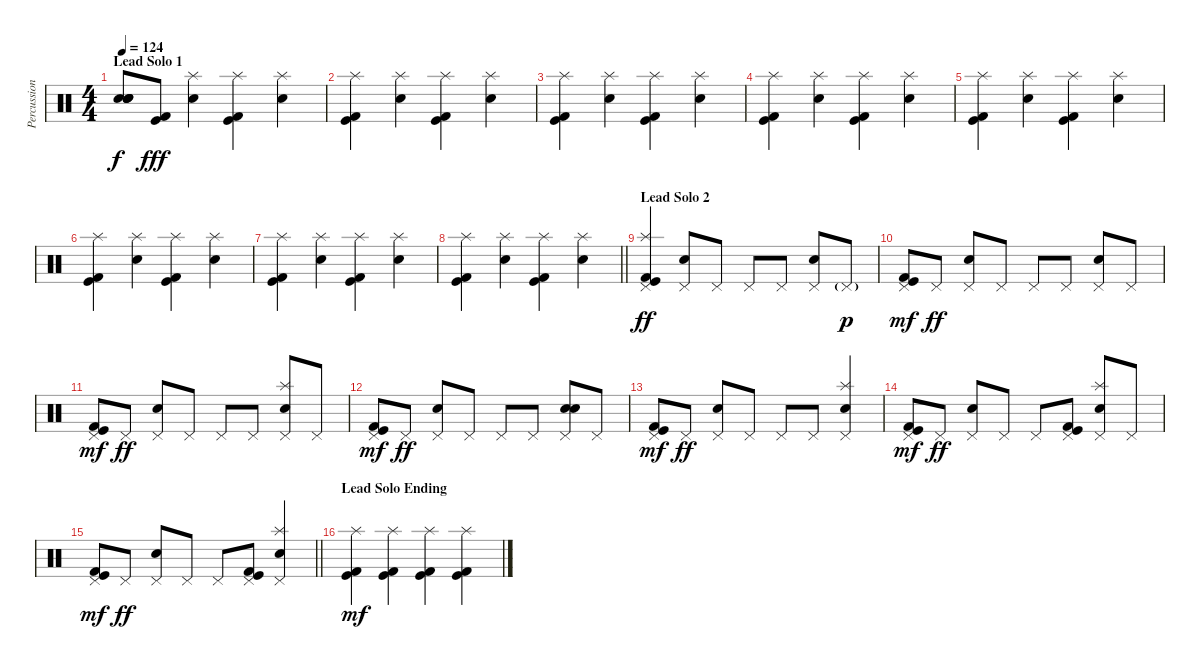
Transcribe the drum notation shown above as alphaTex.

\track ("Percussion" "Percussion") {instrument percussion}
\staff {score}
\articulation defaults
\ts (4 4)
\section ("" "Lead Solo 1")
\tempo 124
\clef neutral
\ks c
("Snare (hit)"{t} "Snare (hit)"{t} "Snare (hit)"{t} "Snare (hit)"{t}).8{dy f} ("Kick (hit)" "Kick (hit) 2").8{dy fff} ("Splash (hit)" "Snare (hit) 2").4 ("Splash (hit)" "Kick (hit)" "Kick (hit) 2").4 ("Splash (hit)" "Snare (hit) 2").4 |
("Splash (hit)" "Kick (hit)" "Kick (hit) 2").4 ("Splash (hit)" "Snare (hit) 2").4 ("Splash (hit)" "Kick (hit)" "Kick (hit) 2").4 ("Splash (hit)" "Snare (hit) 2").4 |
("Splash (hit)" "Kick (hit)" "Kick (hit) 2").4 ("Splash (hit)" "Snare (hit) 2").4 ("Splash (hit)" "Kick (hit)" "Kick (hit) 2").4 ("Splash (hit)" "Snare (hit) 2").4 |
("Splash (hit)" "Kick (hit)" "Kick (hit) 2").4 ("Splash (hit)" "Snare (hit) 2").4 ("Splash (hit)" "Kick (hit)" "Kick (hit) 2").4 ("Splash (hit)" "Snare (hit) 2").4 |
("Splash (hit)" "Kick (hit)" "Kick (hit) 2").4 ("Splash (hit)" "Snare (hit) 2").4 ("Splash (hit)" "Kick (hit)" "Kick (hit) 2").4 ("Splash (hit)" "Snare (hit) 2").4 |
("Splash (hit)" "Kick (hit)" "Kick (hit) 2").4 ("Splash (hit)" "Snare (hit) 2").4 ("Splash (hit)" "Kick (hit)" "Kick (hit) 2").4 ("Splash (hit)" "Snare (hit) 2").4 |
("Splash (hit)" "Kick (hit)" "Kick (hit) 2").4 ("Splash (hit)" "Snare (hit) 2").4 ("Splash (hit)" "Kick (hit)" "Kick (hit) 2").4 ("Splash (hit)" "Snare (hit) 2").4 |
\barLineRight lightlight
("Splash (hit)" "Kick (hit)" "Kick (hit) 2").4 ("Splash (hit)" "Snare (hit) 2").4 ("Splash (hit)" "Kick (hit)" "Kick (hit) 2").4 ("Splash (hit)" "Snare (hit) 2").4 |
\section ("" "Lead Solo 2")
("Splash (hit)" "Pedal Hi-Hat (hit)" "Kick (hit)" "Kick (hit) 2").4{dy ff} ("Pedal Hi-Hat (hit)" "Snare (hit) 2").8 "Pedal Hi-Hat (hit)".8 "Pedal Hi-Hat (hit)".8 "Pedal Hi-Hat (hit)".8 ("Pedal Hi-Hat (hit)" "Snare (hit) 2").8 "Pedal Hi-Hat (hit)"{g}.8{dy p} |
("Pedal Hi-Hat (hit)" "Kick (hit)" "Kick (hit) 2").8{dy mf} "Pedal Hi-Hat (hit)".8{dy ff} ("Pedal Hi-Hat (hit)" "Snare (hit) 2").8 "Pedal Hi-Hat (hit)".8 "Pedal Hi-Hat (hit)".8 "Pedal Hi-Hat (hit)".8 ("Pedal Hi-Hat (hit)" "Snare (hit) 2").8 "Pedal Hi-Hat (hit)".8 |
("Pedal Hi-Hat (hit)" "Kick (hit)" "Kick (hit) 2").8{dy mf} "Pedal Hi-Hat (hit)".8{dy ff} ("Pedal Hi-Hat (hit)" "Snare (hit) 2").8 "Pedal Hi-Hat (hit)".8 "Pedal Hi-Hat (hit)".8 "Pedal Hi-Hat (hit)".8 ("Pedal Hi-Hat (hit)" "Splash (hit)" "Snare (hit) 2").8 "Pedal Hi-Hat (hit)".8 |
("Pedal Hi-Hat (hit)" "Kick (hit)" "Kick (hit) 2").8{dy mf} "Pedal Hi-Hat (hit)".8{dy ff} ("Pedal Hi-Hat (hit)" "Snare (hit) 2").8 "Pedal Hi-Hat (hit)".8 "Pedal Hi-Hat (hit)".8 "Pedal Hi-Hat (hit)".8 ("Pedal Hi-Hat (hit)" "Snare (hit)" "Snare (hit) 2").8 "Pedal Hi-Hat (hit)".8 |
("Pedal Hi-Hat (hit)" "Kick (hit)" "Kick (hit) 2").8{dy mf} "Pedal Hi-Hat (hit)".8{dy ff} ("Pedal Hi-Hat (hit)" "Snare (hit) 2").8 "Pedal Hi-Hat (hit)".8 "Pedal Hi-Hat (hit)".8 "Pedal Hi-Hat (hit)".8 ("Pedal Hi-Hat (hit)" "Splash (hit)" "Snare (hit) 2").4 |
("Pedal Hi-Hat (hit)" "Kick (hit)" "Kick (hit) 2").8{dy mf} "Pedal Hi-Hat (hit)".8{dy ff} ("Pedal Hi-Hat (hit)" "Snare (hit) 2").8 "Pedal Hi-Hat (hit)".8 "Pedal Hi-Hat (hit)".8 ("Pedal Hi-Hat (hit)" "Kick (hit)" "Kick (hit) 2").8 ("Pedal Hi-Hat (hit)" "Splash (hit)" "Snare (hit) 2").8 "Pedal Hi-Hat (hit)".8 |
\barLineRight lightlight
("Pedal Hi-Hat (hit)" "Kick (hit)" "Kick (hit) 2").8{dy mf} "Pedal Hi-Hat (hit)".8{dy ff} ("Pedal Hi-Hat (hit)" "Snare (hit) 2").8 "Pedal Hi-Hat (hit)".8 "Pedal Hi-Hat (hit)".8 ("Pedal Hi-Hat (hit)" "Kick (hit)" "Kick (hit) 2").8 ("Pedal Hi-Hat (hit)" "Splash (hit)" "Snare (hit) 2").4 |
\section ("" "Lead Solo Ending")
("Splash (hit)" "Kick (hit)" "Kick (hit) 2").4{dy mf} ("Splash (hit)" "Kick (hit)" "Kick (hit) 2").4 ("Splash (hit)" "Kick (hit)" "Kick (hit) 2").4 ("Splash (hit)" "Kick (hit)" "Kick (hit) 2").4
